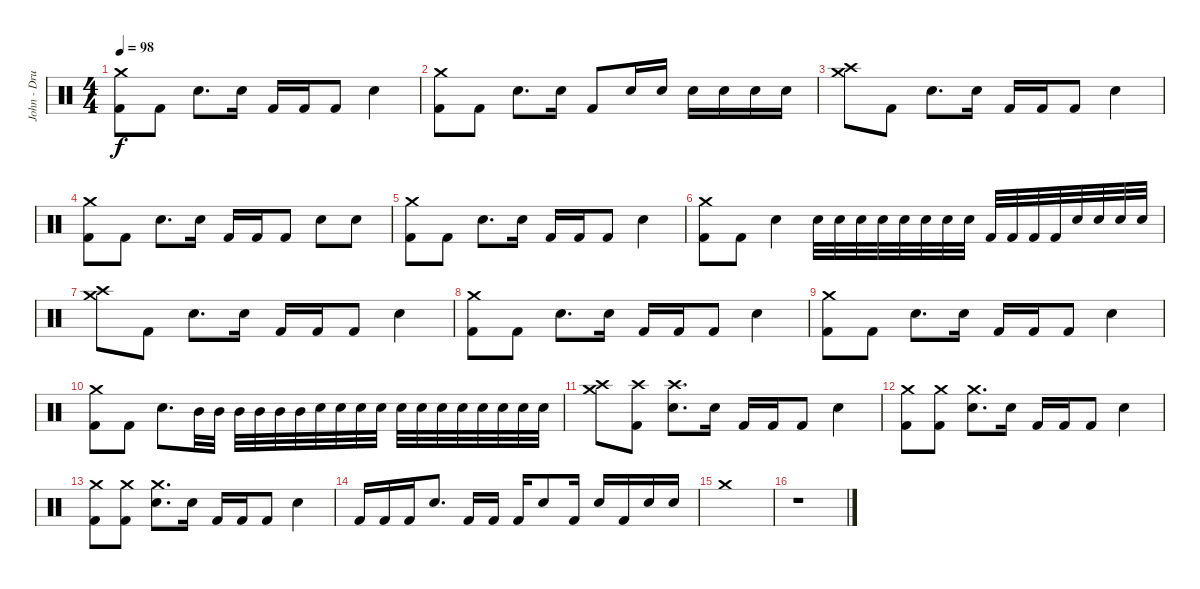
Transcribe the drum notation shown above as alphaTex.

\track ("John - Drums" "John - Dru") {instrument percussion}
\staff {score}
\articulation defaults
\ts (4 4)
\tempo 98
\clef neutral
\ks c
("Crash medium (hit)" "Kick (hit) 2").8{dy f} "Kick (hit) 2".8 "Electric Snare (hit)".8{d} "Electric Snare (hit)".16 "Kick (hit) 2".16 "Kick (hit) 2".16 "Kick (hit) 2".8 "Electric Snare (hit)".4 |
("Crash medium (hit)" "Kick (hit) 2").8 "Kick (hit) 2".8 "Electric Snare (hit)".8{d} "Electric Snare (hit)".16 "Kick (hit) 2".8 "Electric Snare (hit)".16 "Electric Snare (hit)".16 "Electric Snare (hit)".16 "Electric Snare (hit)".16 "Electric Snare (hit)".16 "Electric Snare (hit)".16 |
("Crash high (hit)" "Crash medium (hit)").8 "Kick (hit) 2".8 "Electric Snare (hit)".8{d} "Electric Snare (hit)".16 "Kick (hit) 2".16 "Kick (hit) 2".16 "Kick (hit) 2".8 "Electric Snare (hit)".4 |
("Crash medium (hit)" "Kick (hit) 2").8 "Kick (hit) 2".8 "Electric Snare (hit)".8{d} "Electric Snare (hit)".16 "Kick (hit) 2".16 "Kick (hit) 2".16 "Kick (hit) 2".8 "Electric Snare (hit)".8 "Electric Snare (hit)".8 |
("Crash medium (hit)" "Kick (hit) 2").8 "Kick (hit) 2".8 "Electric Snare (hit)".8{d} "Electric Snare (hit)".16 "Kick (hit) 2".16 "Kick (hit) 2".16 "Kick (hit) 2".8 "Electric Snare (hit)".4 |
("Crash medium (hit)" "Kick (hit) 2").8 "Kick (hit) 2".8 "Electric Snare (hit)".4 "Snare (hit) 2".32 "Snare (hit) 2".32 "Snare (hit) 2".32 "Snare (hit) 2".32 "Snare (hit) 2".32 "Snare (hit) 2".32 "Snare (hit) 2".32 "Snare (hit) 2".32 "Kick (hit) 2".32 "Kick (hit) 2".32 "Kick (hit) 2".32 "Kick (hit) 2".32 "Electric Snare (hit)".32 "Electric Snare (hit)".32 "Electric Snare (hit)".32 "Electric Snare (hit)".32 |
("Crash high (hit)" "Crash medium (hit)").8 "Kick (hit) 2".8 "Electric Snare (hit)".8{d} "Electric Snare (hit)".16 "Kick (hit) 2".16 "Kick (hit) 2".16 "Kick (hit) 2".8 "Electric Snare (hit)".4 |
("Crash medium (hit)" "Kick (hit) 2").8 "Kick (hit) 2".8 "Electric Snare (hit)".8{d} "Electric Snare (hit)".16 "Kick (hit) 2".16 "Kick (hit) 2".16 "Kick (hit) 2".8 "Electric Snare (hit)".4 |
("Crash medium (hit)" "Kick (hit) 2").8 "Kick (hit) 2".8 "Electric Snare (hit)".8{d} "Electric Snare (hit)".16 "Kick (hit) 2".16 "Kick (hit) 2".16 "Kick (hit) 2".8 "Electric Snare (hit)".4 |
("Crash medium (hit)" "Kick (hit) 2").8 "Kick (hit) 2".8 "Electric Snare (hit)".8{d} "Mid Tom (hit)".32 "Mid Tom (hit)".32 "Mid Tom (hit)".32 "Mid Tom (hit)".32 "Mid Tom (hit)".32 "Mid Tom (hit)".32 "Snare (hit) 2".32 "Snare (hit) 2".32 "Snare (hit) 2".32 "Snare (hit) 2".32 "Snare (hit) 2".32 "Snare (hit) 2".32 "Electric Snare (hit)".32 "Electric Snare (hit)".32 "Electric Snare (hit)".32 "Electric Snare (hit)".32 "Electric Snare (hit)".32 "Electric Snare (hit)".32 |
("Crash high (hit)" "Crash medium (hit)").8 ("Kick (hit) 2" "Crash high (hit)").8 ("Electric Snare (hit)" "Crash high (hit)").8{d} "Electric Snare (hit)".16 "Kick (hit) 2".16 "Kick (hit) 2".16 "Kick (hit) 2".8 "Electric Snare (hit)".4 |
("Crash medium (hit)" "Kick (hit) 2").8 ("Kick (hit) 2" "Crash medium (hit)").8 ("Electric Snare (hit)" "Crash medium (hit)").8{d} "Electric Snare (hit)".16 "Kick (hit) 2".16 "Kick (hit) 2".16 "Kick (hit) 2".8 "Electric Snare (hit)".4 |
("Crash medium (hit)" "Kick (hit) 2").8 ("Kick (hit) 2" "Crash medium (hit)").8 ("Electric Snare (hit)" "Crash medium (hit)").8{d} "Electric Snare (hit)".16 "Kick (hit) 2".16 "Kick (hit) 2".16 "Kick (hit) 2".8 "Electric Snare (hit)".4 |
"Kick (hit) 2".16 "Kick (hit) 2".16 "Kick (hit) 2".16 "Electric Snare (hit)".8{d} "Kick (hit) 2".16 "Kick (hit) 2".16 "Kick (hit) 2".16 "Electric Snare (hit)".8 "Kick (hit) 2".16 "Electric Snare (hit)".16 "Kick (hit) 2".16 "Electric Snare (hit)".16 "Electric Snare (hit)".16 |
"Crash medium (hit)".1 |
r.1
